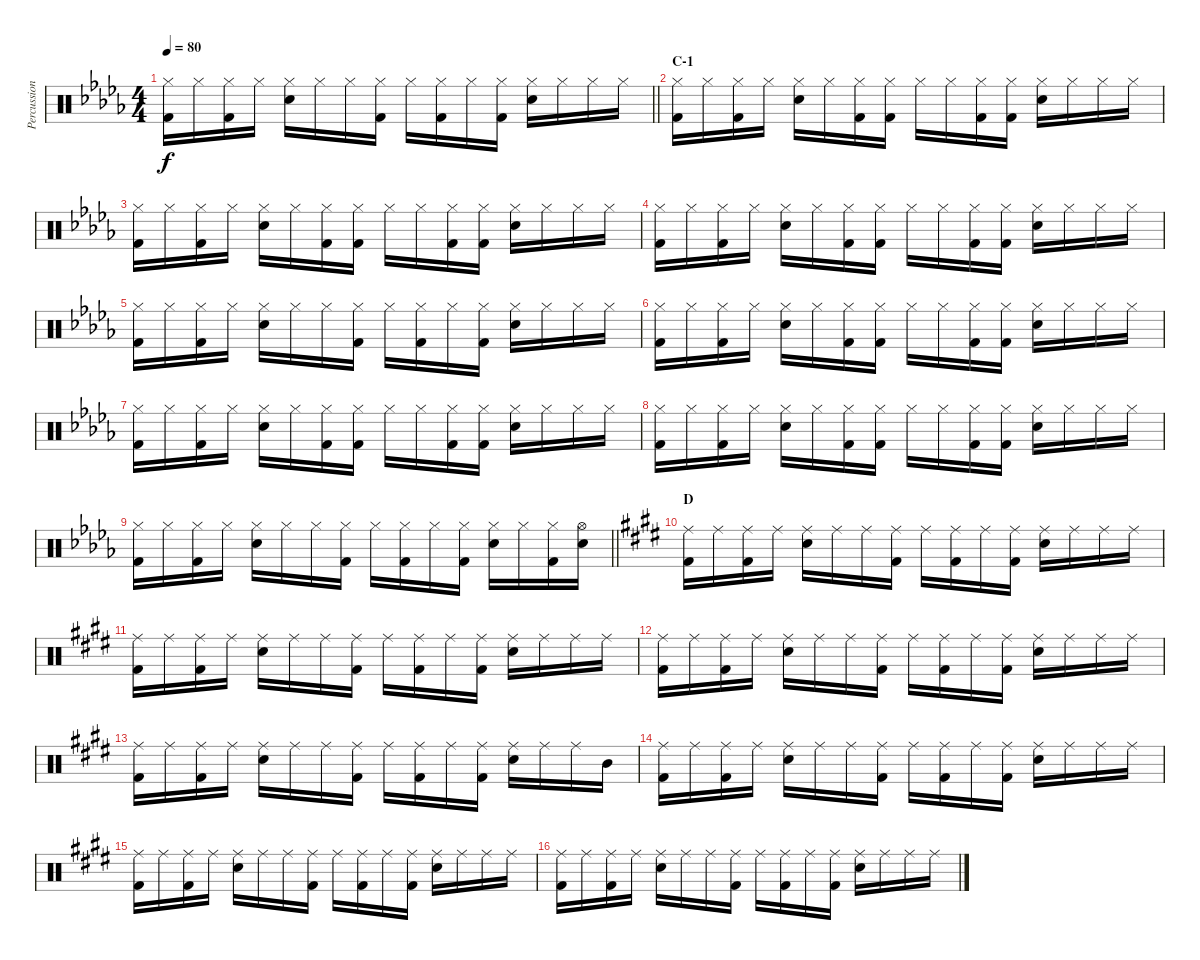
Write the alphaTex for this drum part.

\track ("Percussion" "Percussion") {instrument percussion}
\staff {score}
\articulation defaults
\ts (4 4)
\tempo 80
\clef neutral
\barLineRight lightlight
\ks db
("Hi-Hat (closed)" "Kick (hit) 2").16{dy f} "Hi-Hat (closed)".16 ("Hi-Hat (closed)" "Kick (hit) 2").16 "Hi-Hat (closed)".16 ("Hi-Hat (closed)" "Electric Snare (hit)").16 "Hi-Hat (closed)".16 "Hi-Hat (closed)".16 ("Hi-Hat (closed)" "Kick (hit) 2").16 "Hi-Hat (closed)".16 ("Hi-Hat (closed)" "Kick (hit) 2").16 "Hi-Hat (closed)".16 ("Hi-Hat (closed)" "Kick (hit) 2").16 ("Hi-Hat (closed)" "Electric Snare (hit)").16 "Hi-Hat (closed)".16 "Hi-Hat (closed)".16 "Hi-Hat (closed)".16 |
\section ("" "C-1")
("Hi-Hat (closed)" "Kick (hit) 2").16 "Hi-Hat (closed)".16 ("Hi-Hat (closed)" "Kick (hit) 2").16 "Hi-Hat (closed)".16 ("Hi-Hat (closed)" "Electric Snare (hit)").16 "Hi-Hat (closed)".16 ("Hi-Hat (closed)" "Kick (hit) 2").16 ("Hi-Hat (closed)" "Kick (hit) 2").16 "Hi-Hat (closed)".16 "Hi-Hat (closed)".16 ("Hi-Hat (closed)" "Kick (hit) 2").16 ("Hi-Hat (closed)" "Kick (hit) 2").16 ("Hi-Hat (closed)" "Electric Snare (hit)").16 "Hi-Hat (closed)".16 "Hi-Hat (closed)".16 "Hi-Hat (closed)".16 |
("Hi-Hat (closed)" "Kick (hit) 2").16 "Hi-Hat (closed)".16 ("Hi-Hat (closed)" "Kick (hit) 2").16 "Hi-Hat (closed)".16 ("Hi-Hat (closed)" "Electric Snare (hit)").16 "Hi-Hat (closed)".16 ("Hi-Hat (closed)" "Kick (hit) 2").16 ("Hi-Hat (closed)" "Kick (hit) 2").16 "Hi-Hat (closed)".16 "Hi-Hat (closed)".16 ("Hi-Hat (closed)" "Kick (hit) 2").16 ("Hi-Hat (closed)" "Kick (hit) 2").16 ("Hi-Hat (closed)" "Electric Snare (hit)").16 "Hi-Hat (closed)".16 "Hi-Hat (closed)".16 "Hi-Hat (closed)".16 |
("Hi-Hat (closed)" "Kick (hit) 2").16 "Hi-Hat (closed)".16 ("Hi-Hat (closed)" "Kick (hit) 2").16 "Hi-Hat (closed)".16 ("Hi-Hat (closed)" "Electric Snare (hit)").16 "Hi-Hat (closed)".16 ("Hi-Hat (closed)" "Kick (hit) 2").16 ("Hi-Hat (closed)" "Kick (hit) 2").16 "Hi-Hat (closed)".16 "Hi-Hat (closed)".16 ("Hi-Hat (closed)" "Kick (hit) 2").16 ("Hi-Hat (closed)" "Kick (hit) 2").16 ("Hi-Hat (closed)" "Electric Snare (hit)").16 "Hi-Hat (closed)".16 "Hi-Hat (closed)".16 "Hi-Hat (closed)".16 |
("Hi-Hat (closed)" "Kick (hit) 2").16 "Hi-Hat (closed)".16 ("Hi-Hat (closed)" "Kick (hit) 2").16 "Hi-Hat (closed)".16 ("Hi-Hat (closed)" "Electric Snare (hit)").16 "Hi-Hat (closed)".16 "Hi-Hat (closed)".16 ("Hi-Hat (closed)" "Kick (hit) 2").16 "Hi-Hat (closed)".16 ("Hi-Hat (closed)" "Kick (hit) 2").16 "Hi-Hat (closed)".16 ("Hi-Hat (closed)" "Kick (hit) 2").16 ("Hi-Hat (closed)" "Electric Snare (hit)").16 "Hi-Hat (closed)".16 "Hi-Hat (closed)".16 "Hi-Hat (closed)".16 |
("Hi-Hat (closed)" "Kick (hit) 2").16 "Hi-Hat (closed)".16 ("Hi-Hat (closed)" "Kick (hit) 2").16 "Hi-Hat (closed)".16 ("Hi-Hat (closed)" "Electric Snare (hit)").16 "Hi-Hat (closed)".16 ("Hi-Hat (closed)" "Kick (hit) 2").16 ("Hi-Hat (closed)" "Kick (hit) 2").16 "Hi-Hat (closed)".16 "Hi-Hat (closed)".16 ("Hi-Hat (closed)" "Kick (hit) 2").16 ("Hi-Hat (closed)" "Kick (hit) 2").16 ("Hi-Hat (closed)" "Electric Snare (hit)").16 "Hi-Hat (closed)".16 "Hi-Hat (closed)".16 "Hi-Hat (closed)".16 |
("Hi-Hat (closed)" "Kick (hit) 2").16 "Hi-Hat (closed)".16 ("Hi-Hat (closed)" "Kick (hit) 2").16 "Hi-Hat (closed)".16 ("Hi-Hat (closed)" "Electric Snare (hit)").16 "Hi-Hat (closed)".16 ("Hi-Hat (closed)" "Kick (hit) 2").16 ("Hi-Hat (closed)" "Kick (hit) 2").16 "Hi-Hat (closed)".16 "Hi-Hat (closed)".16 ("Hi-Hat (closed)" "Kick (hit) 2").16 ("Hi-Hat (closed)" "Kick (hit) 2").16 ("Hi-Hat (closed)" "Electric Snare (hit)").16 "Hi-Hat (closed)".16 "Hi-Hat (closed)".16 "Hi-Hat (closed)".16 |
("Hi-Hat (closed)" "Kick (hit) 2").16 "Hi-Hat (closed)".16 ("Hi-Hat (closed)" "Kick (hit) 2").16 "Hi-Hat (closed)".16 ("Hi-Hat (closed)" "Electric Snare (hit)").16 "Hi-Hat (closed)".16 ("Hi-Hat (closed)" "Kick (hit) 2").16 ("Hi-Hat (closed)" "Kick (hit) 2").16 "Hi-Hat (closed)".16 "Hi-Hat (closed)".16 ("Hi-Hat (closed)" "Kick (hit) 2").16 ("Hi-Hat (closed)" "Kick (hit) 2").16 ("Hi-Hat (closed)" "Electric Snare (hit)").16 "Hi-Hat (closed)".16 "Hi-Hat (closed)".16 "Hi-Hat (closed)".16 |
\barLineRight lightlight
("Hi-Hat (closed)" "Kick (hit) 2").16 "Hi-Hat (closed)".16 ("Hi-Hat (closed)" "Kick (hit) 2").16 "Hi-Hat (closed)".16 ("Hi-Hat (closed)" "Electric Snare (hit)").16 "Hi-Hat (closed)".16 "Hi-Hat (closed)".16 ("Hi-Hat (closed)" "Kick (hit) 2").16 "Hi-Hat (closed)".16 ("Hi-Hat (closed)" "Kick (hit) 2").16 "Hi-Hat (closed)".16 ("Hi-Hat (closed)" "Kick (hit) 2").16 ("Hi-Hat (closed)" "Electric Snare (hit)").16 "Hi-Hat (closed)".16 ("Hi-Hat (closed)" "Kick (hit) 2").16 ("Hi-Hat (open)" "Electric Snare (hit)").16 |
\section ("" "D")
\ks e
("Ride (middle)" "Kick (hit) 2").16 "Ride (middle)".16 ("Ride (middle)" "Kick (hit) 2").16 "Ride (middle)".16 ("Ride (middle)" "Electric Snare (hit)").16 "Ride (middle)".16 "Ride (middle)".16 ("Ride (middle)" "Kick (hit) 2").16 "Ride (middle)".16 ("Ride (middle)" "Kick (hit) 2").16 "Ride (middle)".16 ("Ride (middle)" "Kick (hit) 2").16 ("Ride (middle)" "Electric Snare (hit)").16 "Ride (middle)".16 "Ride (middle)".16 "Ride (middle)".16 |
("Ride (middle)" "Kick (hit) 2").16 "Ride (middle)".16 ("Ride (middle)" "Kick (hit) 2").16 "Ride (middle)".16 ("Ride (middle)" "Electric Snare (hit)").16 "Ride (middle)".16 "Ride (middle)".16 ("Ride (middle)" "Kick (hit) 2").16 "Ride (middle)".16 ("Ride (middle)" "Kick (hit) 2").16 "Ride (middle)".16 ("Ride (middle)" "Kick (hit) 2").16 ("Ride (middle)" "Electric Snare (hit)").16 "Ride (middle)".16 "Ride (middle)".16 "Ride (middle)".16 |
("Ride (middle)" "Kick (hit) 2").16 "Ride (middle)".16 ("Ride (middle)" "Kick (hit) 2").16 "Ride (middle)".16 ("Ride (middle)" "Electric Snare (hit)").16 "Ride (middle)".16 "Ride (middle)".16 ("Ride (middle)" "Kick (hit) 2").16 "Ride (middle)".16 ("Ride (middle)" "Kick (hit) 2").16 "Ride (middle)".16 ("Ride (middle)" "Kick (hit) 2").16 ("Ride (middle)" "Electric Snare (hit)").16 "Ride (middle)".16 "Ride (middle)".16 "Ride (middle)".16 |
("Ride (middle)" "Kick (hit) 2").16 "Ride (middle)".16 ("Ride (middle)" "Kick (hit) 2").16 "Ride (middle)".16 ("Ride (middle)" "Electric Snare (hit)").16 "Ride (middle)".16 "Ride (middle)".16 ("Ride (middle)" "Kick (hit) 2").16 "Ride (middle)".16 ("Ride (middle)" "Kick (hit) 2").16 "Ride (middle)".16 ("Ride (middle)" "Kick (hit) 2").16 ("Ride (middle)" "Electric Snare (hit)").16 "Ride (middle)".16 "Ride (middle)".16 "Mid Tom (hit)".16 |
("Ride (middle)" "Kick (hit) 2").16 "Ride (middle)".16 ("Ride (middle)" "Kick (hit) 2").16 "Ride (middle)".16 ("Ride (middle)" "Electric Snare (hit)").16 "Ride (middle)".16 "Ride (middle)".16 ("Ride (middle)" "Kick (hit) 2").16 "Ride (middle)".16 ("Ride (middle)" "Kick (hit) 2").16 "Ride (middle)".16 ("Ride (middle)" "Kick (hit) 2").16 ("Ride (middle)" "Electric Snare (hit)").16 "Ride (middle)".16 "Ride (middle)".16 "Ride (middle)".16 |
("Ride (middle)" "Kick (hit) 2").16 "Ride (middle)".16 ("Ride (middle)" "Kick (hit) 2").16 "Ride (middle)".16 ("Ride (middle)" "Electric Snare (hit)").16 "Ride (middle)".16 "Ride (middle)".16 ("Ride (middle)" "Kick (hit) 2").16 "Ride (middle)".16 ("Ride (middle)" "Kick (hit) 2").16 "Ride (middle)".16 ("Ride (middle)" "Kick (hit) 2").16 ("Ride (middle)" "Electric Snare (hit)").16 "Ride (middle)".16 "Ride (middle)".16 "Ride (middle)".16 |
("Ride (middle)" "Kick (hit) 2").16 "Ride (middle)".16 ("Ride (middle)" "Kick (hit) 2").16 "Ride (middle)".16 ("Ride (middle)" "Electric Snare (hit)").16 "Ride (middle)".16 "Ride (middle)".16 ("Ride (middle)" "Kick (hit) 2").16 "Ride (middle)".16 ("Ride (middle)" "Kick (hit) 2").16 "Ride (middle)".16 ("Ride (middle)" "Kick (hit) 2").16 ("Ride (middle)" "Electric Snare (hit)").16 "Ride (middle)".16 "Ride (middle)".16 "Ride (middle)".16
